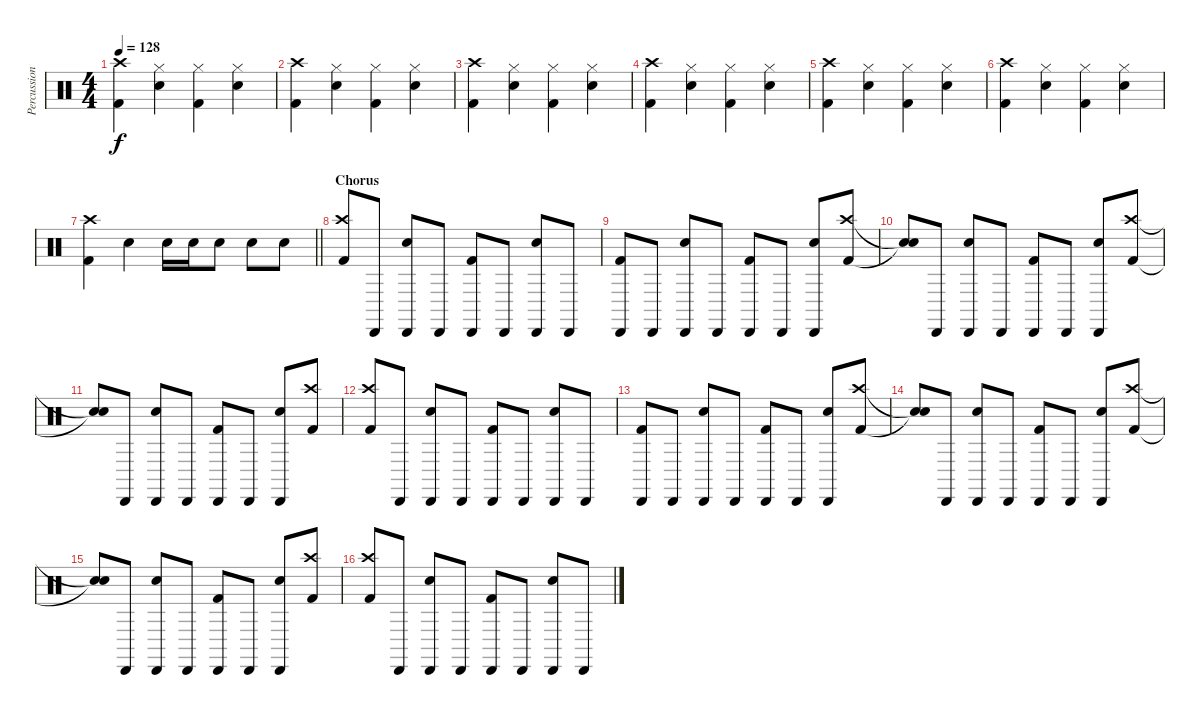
\track ("Percussion" "Percussion") {instrument percussion}
\staff {score}
\articulation defaults
\ts (4 4)
\tempo 128
\clef neutral
\ks c
("Kick (hit) 2" "Crash high (hit)").4{dy f} ("Snare (hit) 2" "Hi-Hat (closed)").4 ("Kick (hit) 2" "Hi-Hat (closed)").4 ("Snare (hit) 2" "Hi-Hat (closed)").4 |
("Kick (hit) 2" "Crash high (hit)").4 ("Snare (hit) 2" "Hi-Hat (closed)").4 ("Kick (hit) 2" "Hi-Hat (closed)").4 ("Snare (hit) 2" "Hi-Hat (closed)").4 |
("Kick (hit) 2" "Crash high (hit)").4 ("Snare (hit) 2" "Hi-Hat (closed)").4 ("Kick (hit) 2" "Hi-Hat (closed)").4 ("Snare (hit) 2" "Hi-Hat (closed)").4 |
("Kick (hit) 2" "Crash high (hit)").4 ("Snare (hit) 2" "Hi-Hat (closed)").4 ("Kick (hit) 2" "Hi-Hat (closed)").4 ("Snare (hit) 2" "Hi-Hat (closed)").4 |
("Kick (hit) 2" "Crash high (hit)").4 ("Snare (hit) 2" "Hi-Hat (closed)").4 ("Kick (hit) 2" "Hi-Hat (closed)").4 ("Snare (hit) 2" "Hi-Hat (closed)").4 |
("Kick (hit) 2" "Crash high (hit)").4 ("Snare (hit) 2" "Hi-Hat (closed)").4 ("Kick (hit) 2" "Hi-Hat (closed)").4 ("Snare (hit) 2" "Hi-Hat (closed)").4 |
\barLineRight lightlight
("Kick (hit) 2" "Crash high (hit)").4 "Snare (hit) 2".4 "Snare (hit) 2".16 "Snare (hit) 2".16 "Snare (hit) 2".8 "Snare (hit) 2".8 "Snare (hit) 2".8 |
\section ("" "Chorus")
("Kick (hit) 2" "Crash high (hit)").8 "Cabasa (hit)".8 ("Snare (hit) 2" "Cabasa (hit)").8 "Cabasa (hit)".8 ("Kick (hit) 2" "Cabasa (hit)").8 "Cabasa (hit)".8 ("Snare (hit) 2" "Cabasa (hit)").8 "Cabasa (hit)".8 |
("Kick (hit) 2" "Cabasa (hit)").8 "Cabasa (hit)".8 ("Snare (hit) 2" "Cabasa (hit)").8 "Cabasa (hit)".8 ("Kick (hit) 2" "Cabasa (hit)").8 "Cabasa (hit)".8 ("Snare (hit) 2" "Cabasa (hit)").8 ("Kick (hit) 2" "Crash high (hit)").8 |
("Snare (hit)"{t} "Snare (hit)"{t}).8 "Cabasa (hit)".8 ("Snare (hit) 2" "Cabasa (hit)").8 "Cabasa (hit)".8 ("Kick (hit) 2" "Cabasa (hit)").8 "Cabasa (hit)".8 ("Snare (hit) 2" "Cabasa (hit)").8 ("Kick (hit) 2" "Crash high (hit)").8 |
("Snare (hit)"{t} "Snare (hit)"{t}).8 "Cabasa (hit)".8 ("Snare (hit) 2" "Cabasa (hit)").8 "Cabasa (hit)".8 ("Kick (hit) 2" "Cabasa (hit)").8 "Cabasa (hit)".8 ("Snare (hit) 2" "Cabasa (hit)").8 ("Kick (hit) 2" "Crash high (hit)").8 |
("Kick (hit) 2" "Crash high (hit)").8 "Cabasa (hit)".8 ("Snare (hit) 2" "Cabasa (hit)").8 "Cabasa (hit)".8 ("Kick (hit) 2" "Cabasa (hit)").8 "Cabasa (hit)".8 ("Snare (hit) 2" "Cabasa (hit)").8 "Cabasa (hit)".8 |
("Kick (hit) 2" "Cabasa (hit)").8 "Cabasa (hit)".8 ("Snare (hit) 2" "Cabasa (hit)").8 "Cabasa (hit)".8 ("Kick (hit) 2" "Cabasa (hit)").8 "Cabasa (hit)".8 ("Snare (hit) 2" "Cabasa (hit)").8 ("Kick (hit) 2" "Crash high (hit)").8 |
("Snare (hit)"{t} "Snare (hit)"{t}).8 "Cabasa (hit)".8 ("Snare (hit) 2" "Cabasa (hit)").8 "Cabasa (hit)".8 ("Kick (hit) 2" "Cabasa (hit)").8 "Cabasa (hit)".8 ("Snare (hit) 2" "Cabasa (hit)").8 ("Kick (hit) 2" "Crash high (hit)").8 |
("Snare (hit)"{t} "Snare (hit)"{t}).8 "Cabasa (hit)".8 ("Snare (hit) 2" "Cabasa (hit)").8 "Cabasa (hit)".8 ("Kick (hit) 2" "Cabasa (hit)").8 "Cabasa (hit)".8 ("Snare (hit) 2" "Cabasa (hit)").8 ("Kick (hit) 2" "Crash high (hit)").8 |
("Kick (hit) 2" "Crash high (hit)").8 "Cabasa (hit)".8 ("Snare (hit) 2" "Cabasa (hit)").8 "Cabasa (hit)".8 ("Kick (hit) 2" "Cabasa (hit)").8 "Cabasa (hit)".8 ("Snare (hit) 2" "Cabasa (hit)").8 "Cabasa (hit)".8
